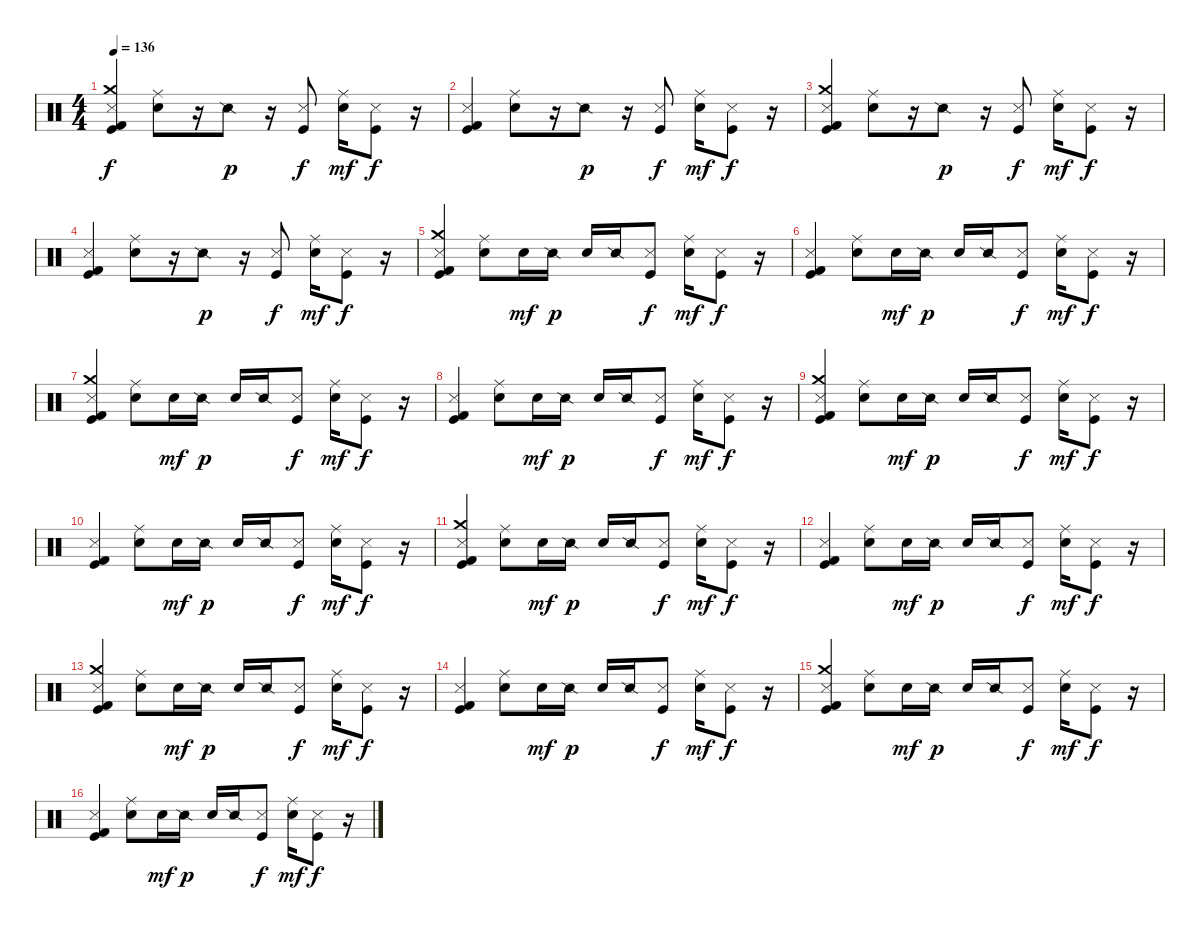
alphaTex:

\track "" {instrument percussion}
\staff {score}
\articulation defaults
\ts (4 4)
\tempo 136
\clef neutral
\ks c
("Metronome (hit)" "Kick (hit) 2" "Crash medium (hit)" "Kick (hit)").4{dy f} ("Ride (middle)" "Metronome (bell)").8 r.16 "Snare (side stick) 2".8{dy p} r.16 ("Metronome (hit)" "Kick (hit)").8{dy f} ("Ride (middle)" "Electric Snare (hit)").16{dy mf} ("Metronome (hit)" "Kick (hit)").8{dy f} r.16 |
("Metronome (hit)" "Kick (hit) 2" "Kick (hit)").4 ("Ride (middle)" "Metronome (bell)").8 r.16 "Snare (side stick) 2".8{dy p} r.16 ("Metronome (hit)" "Kick (hit)").8{dy f} ("Ride (middle)" "Electric Snare (hit)").16{dy mf} ("Metronome (hit)" "Kick (hit)").8{dy f} r.16 |
("Metronome (hit)" "Kick (hit) 2" "Crash medium (hit)" "Kick (hit)").4 ("Ride (middle)" "Metronome (bell)").8 r.16 "Snare (side stick) 2".8{dy p} r.16 ("Metronome (hit)" "Kick (hit)").8{dy f} ("Ride (middle)" "Electric Snare (hit)").16{dy mf} ("Metronome (hit)" "Kick (hit)").8{dy f} r.16 |
("Metronome (hit)" "Kick (hit) 2" "Kick (hit)").4 ("Ride (middle)" "Metronome (bell)").8 r.16 "Snare (side stick) 2".8{dy p} r.16 ("Metronome (hit)" "Kick (hit)").8{dy f} ("Ride (middle)" "Electric Snare (hit)").16{dy mf} ("Metronome (hit)" "Kick (hit)").8{dy f} r.16 |
("Metronome (hit)" "Kick (hit) 2" "Crash medium (hit)" "Kick (hit)").4 ("Ride (middle)" "Metronome (bell)").8 "Electric Snare (hit)".16{dy mf} "Snare (side stick) 2".16{dy p} "Electric Snare (hit)".16 "Snare (side stick) 2".16 ("Metronome (hit)" "Kick (hit)").8{dy f} ("Ride (middle)" "Electric Snare (hit)").16{dy mf} ("Metronome (hit)" "Kick (hit)").8{dy f} r.16 |
("Metronome (hit)" "Kick (hit) 2" "Kick (hit)").4 ("Ride (middle)" "Metronome (bell)").8 "Electric Snare (hit)".16{dy mf} "Snare (side stick) 2".16{dy p} "Electric Snare (hit)".16 "Snare (side stick) 2".16 ("Metronome (hit)" "Kick (hit)").8{dy f} ("Ride (middle)" "Electric Snare (hit)").16{dy mf} ("Metronome (hit)" "Kick (hit)").8{dy f} r.16 |
("Metronome (hit)" "Kick (hit) 2" "Crash medium (hit)" "Kick (hit)").4 ("Ride (middle)" "Metronome (bell)").8 "Electric Snare (hit)".16{dy mf} "Snare (side stick) 2".16{dy p} "Electric Snare (hit)".16 "Snare (side stick) 2".16 ("Metronome (hit)" "Kick (hit)").8{dy f} ("Ride (middle)" "Electric Snare (hit)").16{dy mf} ("Metronome (hit)" "Kick (hit)").8{dy f} r.16 |
("Metronome (hit)" "Kick (hit) 2" "Kick (hit)").4 ("Ride (middle)" "Metronome (bell)").8 "Electric Snare (hit)".16{dy mf} "Snare (side stick) 2".16{dy p} "Electric Snare (hit)".16 "Snare (side stick) 2".16 ("Metronome (hit)" "Kick (hit)").8{dy f} ("Ride (middle)" "Electric Snare (hit)").16{dy mf} ("Metronome (hit)" "Kick (hit)").8{dy f} r.16 |
("Metronome (hit)" "Kick (hit) 2" "Crash medium (hit)" "Kick (hit)").4 ("Ride (middle)" "Metronome (bell)").8 "Electric Snare (hit)".16{dy mf} "Snare (side stick) 2".16{dy p} "Electric Snare (hit)".16 "Snare (side stick) 2".16 ("Metronome (hit)" "Kick (hit)").8{dy f} ("Ride (middle)" "Electric Snare (hit)").16{dy mf} ("Metronome (hit)" "Kick (hit)").8{dy f} r.16 |
("Metronome (hit)" "Kick (hit) 2" "Kick (hit)").4 ("Ride (middle)" "Metronome (bell)").8 "Electric Snare (hit)".16{dy mf} "Snare (side stick) 2".16{dy p} "Electric Snare (hit)".16 "Snare (side stick) 2".16 ("Metronome (hit)" "Kick (hit)").8{dy f} ("Ride (middle)" "Electric Snare (hit)").16{dy mf} ("Metronome (hit)" "Kick (hit)").8{dy f} r.16 |
("Metronome (hit)" "Kick (hit) 2" "Crash medium (hit)" "Kick (hit)").4 ("Ride (middle)" "Metronome (bell)").8 "Electric Snare (hit)".16{dy mf} "Snare (side stick) 2".16{dy p} "Electric Snare (hit)".16 "Snare (side stick) 2".16 ("Metronome (hit)" "Kick (hit)").8{dy f} ("Ride (middle)" "Electric Snare (hit)").16{dy mf} ("Metronome (hit)" "Kick (hit)").8{dy f} r.16 |
("Metronome (hit)" "Kick (hit) 2" "Kick (hit)").4 ("Ride (middle)" "Metronome (bell)").8 "Electric Snare (hit)".16{dy mf} "Snare (side stick) 2".16{dy p} "Electric Snare (hit)".16 "Snare (side stick) 2".16 ("Metronome (hit)" "Kick (hit)").8{dy f} ("Ride (middle)" "Electric Snare (hit)").16{dy mf} ("Metronome (hit)" "Kick (hit)").8{dy f} r.16 |
("Metronome (hit)" "Kick (hit) 2" "Crash medium (hit)" "Kick (hit)").4 ("Ride (middle)" "Metronome (bell)").8 "Electric Snare (hit)".16{dy mf} "Snare (side stick) 2".16{dy p} "Electric Snare (hit)".16 "Snare (side stick) 2".16 ("Metronome (hit)" "Kick (hit)").8{dy f} ("Ride (middle)" "Electric Snare (hit)").16{dy mf} ("Metronome (hit)" "Kick (hit)").8{dy f} r.16 |
("Metronome (hit)" "Kick (hit) 2" "Kick (hit)").4 ("Ride (middle)" "Metronome (bell)").8 "Electric Snare (hit)".16{dy mf} "Snare (side stick) 2".16{dy p} "Electric Snare (hit)".16 "Snare (side stick) 2".16 ("Metronome (hit)" "Kick (hit)").8{dy f} ("Ride (middle)" "Electric Snare (hit)").16{dy mf} ("Metronome (hit)" "Kick (hit)").8{dy f} r.16 |
("Metronome (hit)" "Kick (hit) 2" "Crash medium (hit)" "Kick (hit)").4 ("Ride (middle)" "Metronome (bell)").8 "Electric Snare (hit)".16{dy mf} "Snare (side stick) 2".16{dy p} "Electric Snare (hit)".16 "Snare (side stick) 2".16 ("Metronome (hit)" "Kick (hit)").8{dy f} ("Ride (middle)" "Electric Snare (hit)").16{dy mf} ("Metronome (hit)" "Kick (hit)").8{dy f} r.16 |
("Metronome (hit)" "Kick (hit) 2" "Kick (hit)").4 ("Ride (middle)" "Metronome (bell)").8 "Electric Snare (hit)".16{dy mf} "Snare (side stick) 2".16{dy p} "Electric Snare (hit)".16 "Snare (side stick) 2".16 ("Metronome (hit)" "Kick (hit)").8{dy f} ("Ride (middle)" "Electric Snare (hit)").16{dy mf} ("Metronome (hit)" "Kick (hit)").8{dy f} r.16
